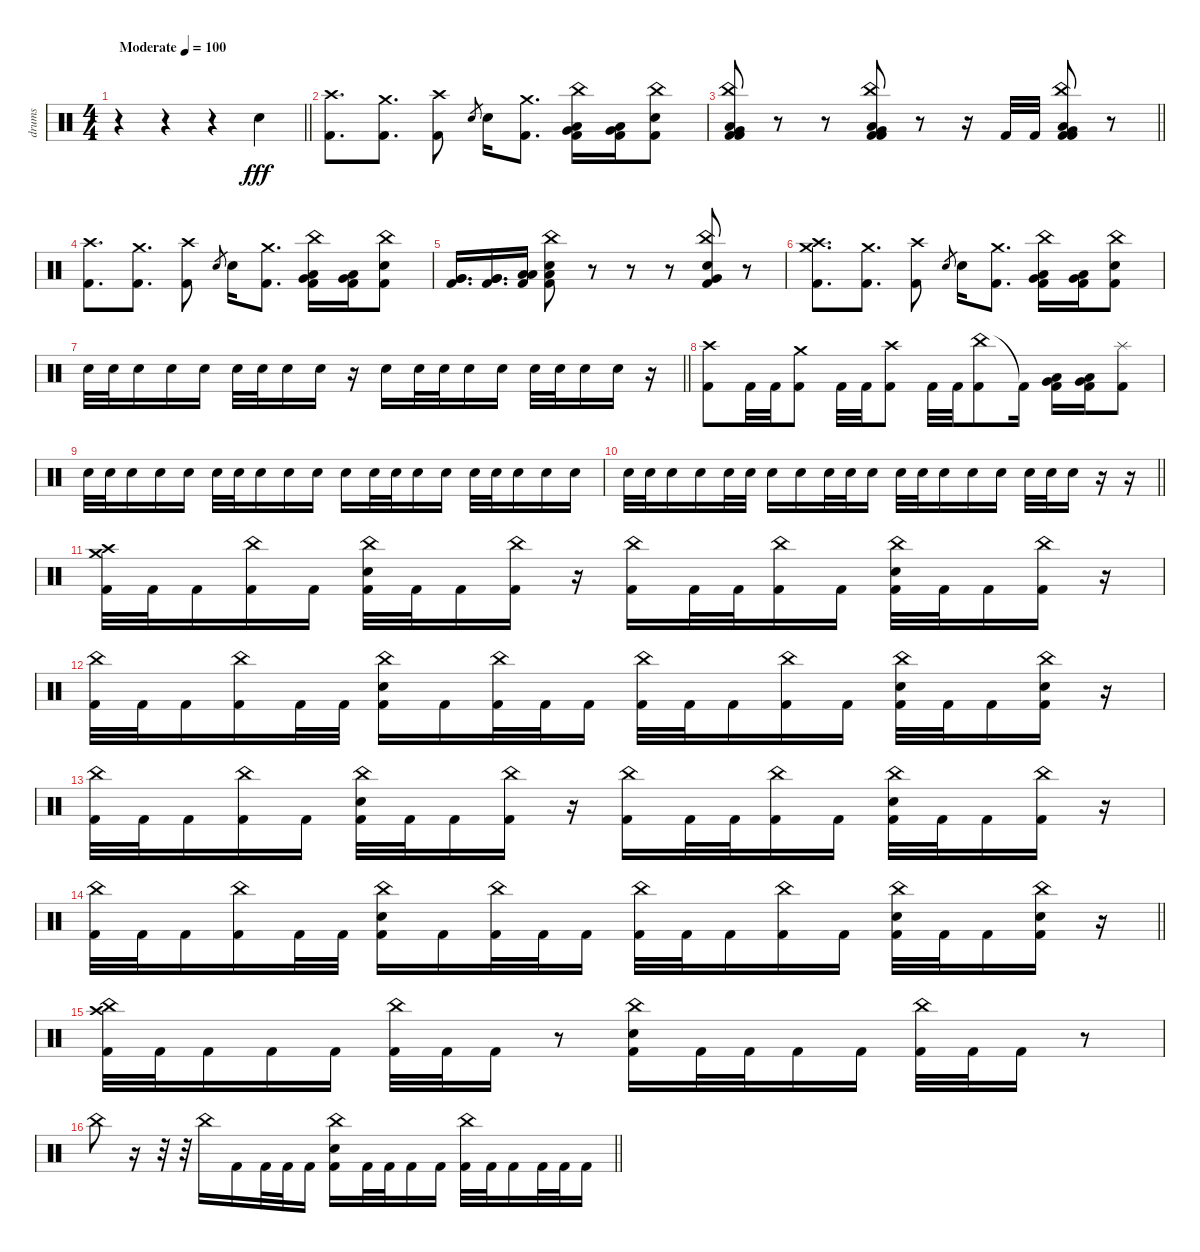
\track ("drums" "drums") {instrument percussion}
\staff {score}
\articulation defaults
\ts (4 4)
\tempo (100 "Moderate")
\clef neutral
\barLineRight lightlight
\ks c
r.4{dy fff} r.4 r.4 "Electric Snare (hit)".4 |
\section ("" "")
("Crash high (hit)" "Kick (hit) 2").8{d} ("Crash medium (hit)" "Kick (hit) 2").8{d} ("Crash high (hit)" "Kick (hit) 2").8 "Electric Snare (hit)".8{gr} "Electric Snare (hit)".16 ("Crash medium (hit)" "Kick (hit) 2").8{d} ("China (hit)" "Very Low Tom (hit)" "Low Floor Tom (hit)" "Kick (hit) 2").16 ("Very Low Tom (hit)" "Low Floor Tom (hit)" "Kick (hit) 2").16 ("China (hit)" "Electric Snare (hit)" "Kick (hit) 2").8 |
\barLineRight lightlight
("China (hit)" "Very Low Tom (hit)" "Low Floor Tom (hit)" "Kick (hit) 2" "Kick (hit) 2").8 r.8 r.8 ("China (hit)" "Very Low Tom (hit)" "Low Floor Tom (hit)" "Kick (hit) 2" "Kick (hit) 2").8 r.8 r.16 "Kick (hit) 2".32 "Kick (hit) 2".32 ("China (hit)" "Low Floor Tom (hit)" "Very Low Tom (hit)" "Kick (hit) 2" "Kick (hit) 2").8 r.8 |
("Crash high (hit)" "Kick (hit) 2").8{d} ("Crash medium (hit)" "Kick (hit) 2").8{d} ("Crash high (hit)" "Kick (hit) 2").8 "Electric Snare (hit)".8{gr} "Electric Snare (hit)".16 ("Crash medium (hit)" "Kick (hit) 2").8{d} ("China (hit)" "Very Low Tom (hit)" "Low Floor Tom (hit)" "Kick (hit) 2").16 ("Very Low Tom (hit)" "Low Floor Tom (hit)" "Kick (hit) 2").16 ("China (hit)" "Electric Snare (hit)" "Kick (hit) 2").8 |
("Very Low Tom (hit)" "Very Low Tom (hit)" "Kick (hit) 2").16{d} ("Very Low Tom (hit)" "Very Low Tom (hit)" "Kick (hit) 2").16{d} ("Low Floor Tom (hit)" "Low Floor Tom (hit)" "Kick (hit) 2").16 ("China (hit)" "Electric Snare (hit)" "Low Floor Tom (hit)" "Kick (hit) 2").8 r.8 r.8 r.8 ("China (hit)" "Electric Snare (hit)" "Very Low Tom (hit)" "Kick (hit) 2").8 r.8 |
("Crash high (hit)" "Crash medium (hit)" "Kick (hit) 2").8{d} ("Crash medium (hit)" "Kick (hit) 2").8{d} ("Crash high (hit)" "Kick (hit) 2").8 "Electric Snare (hit)".8{gr} "Electric Snare (hit)".16 ("Crash medium (hit)" "Kick (hit) 2").8{d} ("China (hit)" "Very Low Tom (hit)" "Low Floor Tom (hit)" "Kick (hit) 2").16 ("Very Low Tom (hit)" "Low Floor Tom (hit)" "Kick (hit) 2").16 ("China (hit)" "Electric Snare (hit)" "Kick (hit) 2").8 |
\barLineRight lightlight "Electric Snare (hit)".32 "Electric Snare (hit)".32 "Electric Snare (hit)".16 "Electric Snare (hit)".16 "Electric Snare (hit)".16 "Electric Snare (hit)".32 "Electric Snare (hit)".32 "Electric Snare (hit)".16 "Electric Snare (hit)".16
r.16 "Electric Snare (hit)".16 "Electric Snare (hit)".32 "Electric Snare (hit)".32 "Electric Snare (hit)".16 "Electric Snare (hit)".16 "Electric Snare (hit)".32 "Electric Snare (hit)".32 "Electric Snare (hit)".16 "Electric Snare (hit)".16 r.16 |
("Crash high (hit)" "Kick (hit) 2").8 "Kick (hit) 2".32 "Kick (hit) 2".32 ("Crash medium (hit)" "Kick (hit) 2").8 "Kick (hit) 2".32 "Kick (hit) 2".32 ("Crash high (hit)" "Kick (hit) 2").8 "Kick (hit) 2".32 "Kick (hit) 2".32 ("China (hit)" "Kick (hit) 2").8 "Kick (hit) 2"{t}.16 ("Very Low Tom (hit)" "Low Floor Tom (hit)" "Kick (hit) 2").16 ("Very Low Tom (hit)" "Low Floor Tom (hit)" "Kick (hit) 2").16 ("Splash (hit)" "Kick (hit) 2").8 |
"Electric Snare (hit)".32 "Electric Snare (hit)".32 "Electric Snare (hit)".16 "Electric Snare (hit)".16 "Electric Snare (hit)".16 "Electric Snare (hit)".32 "Electric Snare (hit)".32 "Electric Snare (hit)".16 "Electric Snare (hit)".16 "Electric Snare (hit)".16 "Electric Snare (hit)".16 "Electric Snare (hit)".32 "Electric Snare (hit)".32 "Electric Snare (hit)".16 "Electric Snare (hit)".16 "Electric Snare (hit)".32 "Electric Snare (hit)".32 "Electric Snare (hit)".16 "Electric Snare (hit)".16 "Electric Snare (hit)".16 |
\barLineRight lightlight "Electric Snare (hit)".32 "Electric Snare (hit)".32 "Electric Snare (hit)".16 "Electric Snare (hit)".16 "Electric Snare (hit)".32 "Electric Snare (hit)".32 "Electric Snare (hit)".16 "Electric Snare (hit)".16 "Electric Snare (hit)".32 "Electric Snare (hit)".32 "Electric Snare (hit)".16 "Electric Snare (hit)".32 "Electric Snare (hit)".32 "Electric Snare (hit)".16 "Electric Snare (hit)".16 "Electric Snare (hit)".16 "Electric Snare (hit)".32 "Electric Snare (hit)".32 "Electric Snare (hit)".16
r.16 r.16 |
\section ("" "")
("Crash high (hit)" "Crash medium (hit)" "Kick (hit) 2").32 "Kick (hit) 2".32 "Kick (hit) 2".16 ("China (hit)" "Kick (hit) 2").16 "Kick (hit) 2".16 ("China (hit)" "Electric Snare (hit)" "Kick (hit) 2").32 "Kick (hit) 2".32 "Kick (hit) 2".16 ("China (hit)" "Kick (hit) 2").16 r.16 ("China (hit)" "Kick (hit) 2").16 "Kick (hit) 2".32 "Kick (hit) 2".32 ("China (hit)" "Kick (hit) 2").16 "Kick (hit) 2".16 ("China (hit)" "Electric Snare (hit)" "Kick (hit) 2").32 "Kick (hit) 2".32 "Kick (hit) 2".16 ("China (hit)" "Kick (hit) 2").16 r.16 |
("China (hit)" "Kick (hit) 2").32 "Kick (hit) 2".32 "Kick (hit) 2".16 ("China (hit)" "Kick (hit) 2").16 "Kick (hit) 2".32 "Kick (hit) 2".32 ("China (hit)" "Electric Snare (hit)" "Kick (hit) 2").16 "Kick (hit) 2".16 ("China (hit)" "Kick (hit) 2").32 "Kick (hit) 2".32 "Kick (hit) 2".16 ("China (hit)" "Kick (hit) 2").32 "Kick (hit) 2".32 "Kick (hit) 2".16 ("China (hit)" "Kick (hit) 2").16 "Kick (hit) 2".16 ("China (hit)" "Electric Snare (hit)" "Kick (hit) 2").32 "Kick (hit) 2".32 "Kick (hit) 2".16 ("China (hit)" "Electric Snare (hit)" "Kick (hit) 2").16 r.16 |
("China (hit)" "Kick (hit) 2").32 "Kick (hit) 2".32 "Kick (hit) 2".16 ("China (hit)" "Kick (hit) 2").16 "Kick (hit) 2".16 ("China (hit)" "Electric Snare (hit)" "Kick (hit) 2").32 "Kick (hit) 2".32 "Kick (hit) 2".16 ("China (hit)" "Kick (hit) 2").16 r.16 ("China (hit)" "Kick (hit) 2").16 "Kick (hit) 2".32 "Kick (hit) 2".32 ("China (hit)" "Kick (hit) 2").16 "Kick (hit) 2".16 ("China (hit)" "Electric Snare (hit)" "Kick (hit) 2").32 "Kick (hit) 2".32 "Kick (hit) 2".16 ("China (hit)" "Kick (hit) 2").16 r.16 |
\barLineRight lightlight
("China (hit)" "Kick (hit) 2").32 "Kick (hit) 2".32 "Kick (hit) 2".16 ("China (hit)" "Kick (hit) 2").16 "Kick (hit) 2".32 "Kick (hit) 2".32 ("China (hit)" "Electric Snare (hit)" "Kick (hit) 2").16 "Kick (hit) 2".16 ("China (hit)" "Kick (hit) 2").32 "Kick (hit) 2".32 "Kick (hit) 2".16 ("China (hit)" "Kick (hit) 2").32 "Kick (hit) 2".32 "Kick (hit) 2".16 ("China (hit)" "Kick (hit) 2").16 "Kick (hit) 2".16 ("China (hit)" "Electric Snare (hit)" "Kick (hit) 2").32 "Kick (hit) 2".32 "Kick (hit) 2".16 ("China (hit)" "Electric Snare (hit)" "Kick (hit) 2").16 r.16 |
\section ("" "")
("China (hit)" "Crash high (hit)" "Kick (hit) 2").32 "Kick (hit) 2".32 "Kick (hit) 2".16 "Kick (hit) 2".16 "Kick (hit) 2".16 ("China (hit)" "Kick (hit) 2").32 "Kick (hit) 2".32 "Kick (hit) 2".16 r.8 ("China (hit)" "Electric Snare (hit)" "Kick (hit) 2").16 "Kick (hit) 2".32 "Kick (hit) 2".32 "Kick (hit) 2".16 "Kick (hit) 2".16 ("China (hit)" "Kick (hit) 2").32 "Kick (hit) 2".32 "Kick (hit) 2".16 r.8 |
\barLineRight lightlight "China (hit)".8
r.16 r.32 r.32 "China (hit)".16 "Kick (hit) 2".16 "Kick (hit) 2".32 "Kick (hit) 2".32 "Kick (hit) 2".16 ("China (hit)" "Electric Snare (hit)" "Kick (hit) 2").16 "Kick (hit) 2".32 "Kick (hit) 2".32 "Kick (hit) 2".16 "Kick (hit) 2".16 ("China (hit)" "Kick (hit) 2").32 "Kick (hit) 2".32 "Kick (hit) 2".16 "Kick (hit) 2".32 "Kick (hit) 2".32 "Kick (hit) 2".16
